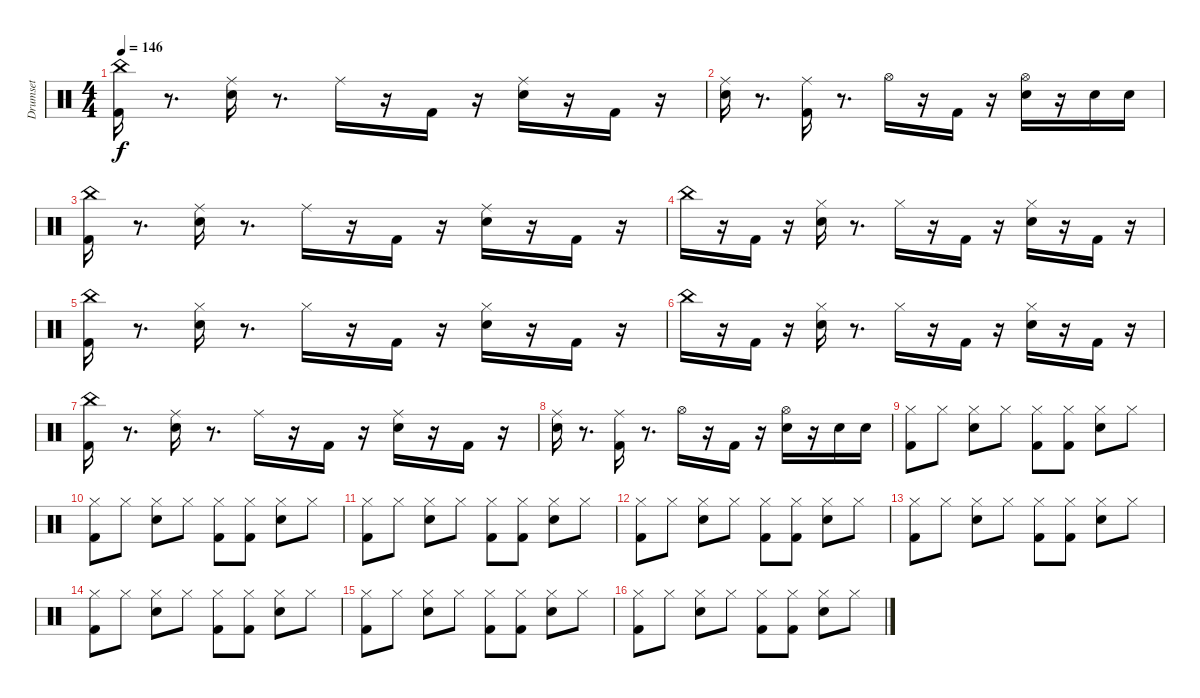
\track ("Drumset" "Drumset") {instrument percussion}
\staff {score}
\articulation defaults
\ts (4 4)
\tempo 146
\clef neutral
\ks c
("Kick (hit) 2" "China (hit)").16{dy f} r.8{d} ("Electric Snare (hit)" "Ride (middle)").16 r.8{d} "Ride (middle)".16 r.16 "Kick (hit) 2".16 r.16 ("Electric Snare (hit)" "Ride (middle)").16 r.16 "Kick (hit) 2".16 r.16 |
("Electric Snare (hit)" "Ride (middle)").16 r.8{d} ("Kick (hit) 2" "Ride (middle)").16 r.8{d} "Hi-Hat (open)".16 r.16 "Kick (hit) 2".16 r.16 ("Electric Snare (hit)" "Hi-Hat (open)").16 r.16 "Electric Snare (hit)".16 "Electric Snare (hit)".16 |
("Kick (hit) 2" "China (hit)").16 r.8{d} ("Electric Snare (hit)" "Ride (middle)").16 r.8{d} "Ride (middle)".16 r.16 "Kick (hit) 2".16 r.16 ("Electric Snare (hit)" "Ride (middle)").16 r.16 "Kick (hit) 2".16 r.16 |
"China (hit)".16 r.16 "Kick (hit) 2".16 r.16 ("Electric Snare (hit)" "Hi-Hat (closed)").16 r.8{d} "Hi-Hat (closed)".16 r.16 "Kick (hit) 2".16 r.16 ("Electric Snare (hit)" "Hi-Hat (closed)").16 r.16 "Kick (hit) 2".16 r.16 |
("Kick (hit) 2" "China (hit)").16 r.8{d} ("Electric Snare (hit)" "Hi-Hat (closed)").16 r.8{d} "Hi-Hat (closed)".16 r.16 "Kick (hit) 2".16 r.16 ("Electric Snare (hit)" "Hi-Hat (closed)").16 r.16 "Kick (hit) 2".16 r.16 |
"China (hit)".16 r.16 "Kick (hit) 2".16 r.16 ("Electric Snare (hit)" "Hi-Hat (closed)").16 r.8{d} "Hi-Hat (closed)".16 r.16 "Kick (hit) 2".16 r.16 ("Electric Snare (hit)" "Hi-Hat (closed)").16 r.16 "Kick (hit) 2".16 r.16 |
("Kick (hit) 2" "China (hit)").16 r.8{d} ("Electric Snare (hit)" "Ride (middle)").16 r.8{d} "Ride (middle)".16 r.16 "Kick (hit) 2".16 r.16 ("Electric Snare (hit)" "Ride (middle)").16 r.16 "Kick (hit) 2".16 r.16 |
("Electric Snare (hit)" "Ride (middle)").16 r.8{d} ("Kick (hit) 2" "Ride (middle)").16 r.8{d} "Hi-Hat (open)".16 r.16 "Kick (hit) 2".16 r.16 ("Electric Snare (hit)" "Hi-Hat (open)").16 r.16 "Electric Snare (hit)".16 "Electric Snare (hit)".16 |
("Kick (hit) 2" "Hi-Hat (closed)").8 "Hi-Hat (closed)".8 ("Snare (hit) 2" "Hi-Hat (closed)").8 "Hi-Hat (closed)".8 ("Kick (hit) 2" "Hi-Hat (closed)").8 ("Kick (hit) 2" "Hi-Hat (closed)").8 ("Snare (hit) 2" "Hi-Hat (closed)").8 "Hi-Hat (closed)".8 |
("Kick (hit) 2" "Hi-Hat (closed)").8 "Hi-Hat (closed)".8 ("Snare (hit) 2" "Hi-Hat (closed)").8 "Hi-Hat (closed)".8 ("Kick (hit) 2" "Hi-Hat (closed)").8 ("Kick (hit) 2" "Hi-Hat (closed)").8 ("Snare (hit) 2" "Hi-Hat (closed)").8 "Hi-Hat (closed)".8 |
("Kick (hit) 2" "Hi-Hat (closed)").8 "Hi-Hat (closed)".8 ("Snare (hit) 2" "Hi-Hat (closed)").8 "Hi-Hat (closed)".8 ("Kick (hit) 2" "Hi-Hat (closed)").8 ("Kick (hit) 2" "Hi-Hat (closed)").8 ("Snare (hit) 2" "Hi-Hat (closed)").8 "Hi-Hat (closed)".8 |
("Kick (hit) 2" "Hi-Hat (closed)").8 "Hi-Hat (closed)".8 ("Snare (hit) 2" "Hi-Hat (closed)").8 "Hi-Hat (closed)".8 ("Kick (hit) 2" "Hi-Hat (closed)").8 ("Kick (hit) 2" "Hi-Hat (closed)").8 ("Snare (hit) 2" "Hi-Hat (closed)").8 "Hi-Hat (closed)".8 |
("Kick (hit) 2" "Hi-Hat (closed)").8 "Hi-Hat (closed)".8 ("Snare (hit) 2" "Hi-Hat (closed)").8 "Hi-Hat (closed)".8 ("Kick (hit) 2" "Hi-Hat (closed)").8 ("Kick (hit) 2" "Hi-Hat (closed)").8 ("Snare (hit) 2" "Hi-Hat (closed)").8 "Hi-Hat (closed)".8 |
("Kick (hit) 2" "Hi-Hat (closed)").8 "Hi-Hat (closed)".8 ("Snare (hit) 2" "Hi-Hat (closed)").8 "Hi-Hat (closed)".8 ("Kick (hit) 2" "Hi-Hat (closed)").8 ("Kick (hit) 2" "Hi-Hat (closed)").8 ("Snare (hit) 2" "Hi-Hat (closed)").8 "Hi-Hat (closed)".8 |
("Kick (hit) 2" "Hi-Hat (closed)").8 "Hi-Hat (closed)".8 ("Snare (hit) 2" "Hi-Hat (closed)").8 "Hi-Hat (closed)".8 ("Kick (hit) 2" "Hi-Hat (closed)").8 ("Kick (hit) 2" "Hi-Hat (closed)").8 ("Snare (hit) 2" "Hi-Hat (closed)").8 "Hi-Hat (closed)".8 |
("Kick (hit) 2" "Hi-Hat (closed)").8 "Hi-Hat (closed)".8 ("Snare (hit) 2" "Hi-Hat (closed)").8 "Hi-Hat (closed)".8 ("Kick (hit) 2" "Hi-Hat (closed)").8 ("Kick (hit) 2" "Hi-Hat (closed)").8 ("Snare (hit) 2" "Hi-Hat (closed)").8 "Hi-Hat (closed)".8
